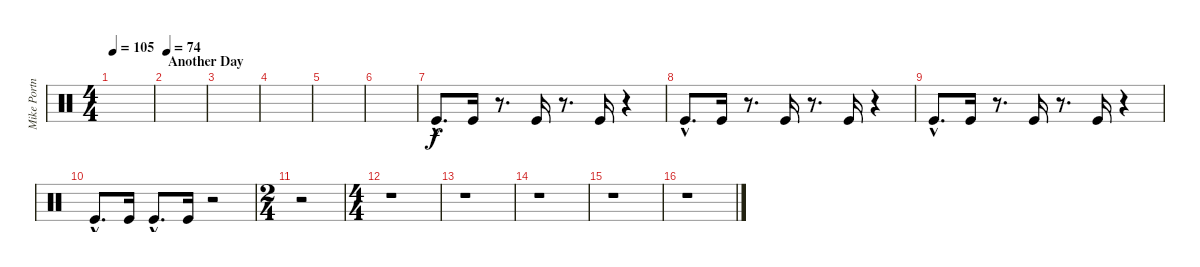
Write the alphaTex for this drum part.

\track ("Mike Portnoy" "Mike Portn") {instrument percussion}
\staff {score}
\articulation defaults
\ts (4 4)
\tempo 105
\clef neutral
\ks c
|
\section ("" "Another Day")
\tempo 74
|
|
|
|
|
"Kick (hit)"{hac}.8{d} "Kick (hit)".16 r.8{d} "Kick (hit)".16 r.8{d} "Kick (hit)".16 r.4 |
"Kick (hit)"{hac}.8{d} "Kick (hit)".16 r.8{d} "Kick (hit)".16 r.8{d} "Kick (hit)".16 r.4 |
"Kick (hit)"{hac}.8{d} "Kick (hit)".16 r.8{d} "Kick (hit)".16 r.8{d} "Kick (hit)".16 r.4 |
"Kick (hit)"{hac}.8{d} "Kick (hit)".16 "Kick (hit)"{hac}.8{d} "Kick (hit)".16 r.2 |
\ts (2 4)
r.2 |
\ts (4 4)
r.1 |
r.1 |
r.1 |
r.1 |
r.1
